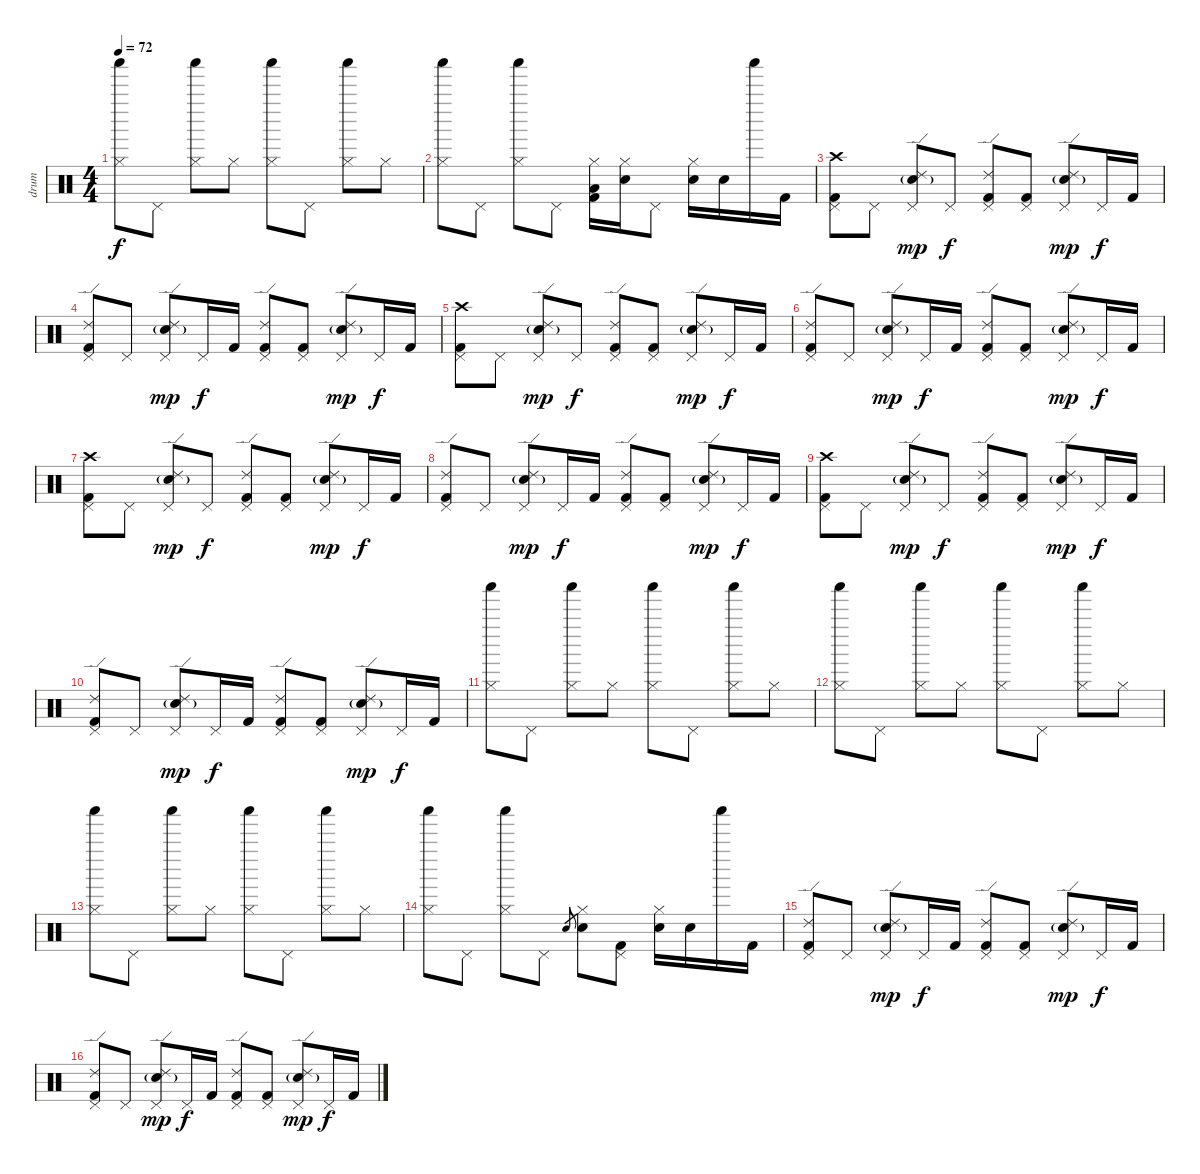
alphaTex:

\track ("drum" "drum") {instrument percussion}
\staff {score}
\articulation defaults
\ts (4 4)
\tempo 72
\clef neutral
\ks c
("Hi-Hat (closed)" "Shaker (hit)").8{dy f} "Pedal Hi-Hat (hit)".8 ("Hi-Hat (closed)" "Shaker (hit)").8 "Hi-Hat (closed)".8 ("Hi-Hat (closed)" "Shaker (hit)").8 "Pedal Hi-Hat (hit)".8 ("Hi-Hat (closed)" "Shaker (hit)").8 "Hi-Hat (closed)".8 |
("Hi-Hat (closed)" "Shaker (hit)").8 "Pedal Hi-Hat (hit)".8 ("Hi-Hat (closed)" "Shaker (hit)").8 "Pedal Hi-Hat (hit)".8 ("Hi-Hat (closed)" "Kick (hit) 2" "Low Floor Tom (hit)").16 ("Hi-Hat (closed)" "Snare (hit) 2").16 "Pedal Hi-Hat (hit)".8 ("Hi-Hat (closed)" "Snare (hit) 2").16 "Snare (hit) 2".16 "Shaker (hit)".16 "Kick (hit) 2".16 |
("Crash high (hit)" "Kick (hit) 2" "Pedal Hi-Hat (hit)").8 "Pedal Hi-Hat (hit)".8 ("Ride (edge) 2" "Electric Snare (hit)"{g} "Pedal Hi-Hat (hit)").8{dy mp} "Pedal Hi-Hat (hit)".8{dy f} ("Ride (edge) 2" "Kick (hit) 2" "Pedal Hi-Hat (hit)").8 ("Kick (hit) 2" "Pedal Hi-Hat (hit)").8 ("Ride (edge) 2" "Electric Snare (hit)"{g} "Pedal Hi-Hat (hit)").8{dy mp} "Pedal Hi-Hat (hit)".16{dy f} "Kick (hit) 2".16 |
("Ride (edge) 2" "Kick (hit) 2" "Pedal Hi-Hat (hit)").8 "Pedal Hi-Hat (hit)".8 ("Ride (edge) 2" "Electric Snare (hit)"{g} "Pedal Hi-Hat (hit)").8{dy mp} "Pedal Hi-Hat (hit)".16{dy f} "Kick (hit) 2".16 ("Ride (edge) 2" "Kick (hit) 2" "Pedal Hi-Hat (hit)").8 ("Kick (hit) 2" "Pedal Hi-Hat (hit)").8 ("Ride (edge) 2" "Electric Snare (hit)"{g} "Pedal Hi-Hat (hit)").8{dy mp} "Pedal Hi-Hat (hit)".16{dy f} "Kick (hit) 2".16 |
("Crash high (hit)" "Kick (hit) 2" "Pedal Hi-Hat (hit)").8 "Pedal Hi-Hat (hit)".8 ("Ride (edge) 2" "Electric Snare (hit)"{g} "Pedal Hi-Hat (hit)").8{dy mp} "Pedal Hi-Hat (hit)".8{dy f} ("Ride (edge) 2" "Kick (hit) 2" "Pedal Hi-Hat (hit)").8 ("Kick (hit) 2" "Pedal Hi-Hat (hit)").8 ("Ride (edge) 2" "Electric Snare (hit)"{g} "Pedal Hi-Hat (hit)").8{dy mp} "Pedal Hi-Hat (hit)".16{dy f} "Kick (hit) 2".16 |
("Ride (edge) 2" "Kick (hit) 2" "Pedal Hi-Hat (hit)").8 "Pedal Hi-Hat (hit)".8 ("Ride (edge) 2" "Electric Snare (hit)"{g} "Pedal Hi-Hat (hit)").8{dy mp} "Pedal Hi-Hat (hit)".16{dy f} "Kick (hit) 2".16 ("Ride (edge) 2" "Kick (hit) 2" "Pedal Hi-Hat (hit)").8 ("Kick (hit) 2" "Pedal Hi-Hat (hit)").8 ("Ride (edge) 2" "Electric Snare (hit)"{g} "Pedal Hi-Hat (hit)").8{dy mp} "Pedal Hi-Hat (hit)".16{dy f} "Kick (hit) 2".16 |
("Crash high (hit)" "Kick (hit) 2" "Pedal Hi-Hat (hit)").8 "Pedal Hi-Hat (hit)".8 ("Ride (edge) 2" "Electric Snare (hit)"{g} "Pedal Hi-Hat (hit)").8{dy mp} "Pedal Hi-Hat (hit)".8{dy f} ("Ride (edge) 2" "Kick (hit) 2" "Pedal Hi-Hat (hit)").8 ("Kick (hit) 2" "Pedal Hi-Hat (hit)").8 ("Ride (edge) 2" "Electric Snare (hit)"{g} "Pedal Hi-Hat (hit)").8{dy mp} "Pedal Hi-Hat (hit)".16{dy f} "Kick (hit) 2".16 |
("Ride (edge) 2" "Kick (hit) 2" "Pedal Hi-Hat (hit)").8 "Pedal Hi-Hat (hit)".8 ("Ride (edge) 2" "Electric Snare (hit)"{g} "Pedal Hi-Hat (hit)").8{dy mp} "Pedal Hi-Hat (hit)".16{dy f} "Kick (hit) 2".16 ("Ride (edge) 2" "Kick (hit) 2" "Pedal Hi-Hat (hit)").8 ("Kick (hit) 2" "Pedal Hi-Hat (hit)").8 ("Ride (edge) 2" "Electric Snare (hit)"{g} "Pedal Hi-Hat (hit)").8{dy mp} "Pedal Hi-Hat (hit)".16{dy f} "Kick (hit) 2".16 |
("Crash high (hit)" "Kick (hit) 2" "Pedal Hi-Hat (hit)").8 "Pedal Hi-Hat (hit)".8 ("Ride (edge) 2" "Electric Snare (hit)"{g} "Pedal Hi-Hat (hit)").8{dy mp} "Pedal Hi-Hat (hit)".8{dy f} ("Ride (edge) 2" "Kick (hit) 2" "Pedal Hi-Hat (hit)").8 ("Kick (hit) 2" "Pedal Hi-Hat (hit)").8 ("Ride (edge) 2" "Electric Snare (hit)"{g} "Pedal Hi-Hat (hit)").8{dy mp} "Pedal Hi-Hat (hit)".16{dy f} "Kick (hit) 2".16 |
("Ride (edge) 2" "Kick (hit) 2" "Pedal Hi-Hat (hit)").8 "Pedal Hi-Hat (hit)".8 ("Ride (edge) 2" "Electric Snare (hit)"{g} "Pedal Hi-Hat (hit)").8{dy mp} "Pedal Hi-Hat (hit)".16{dy f} "Kick (hit) 2".16 ("Ride (edge) 2" "Kick (hit) 2" "Pedal Hi-Hat (hit)").8 ("Kick (hit) 2" "Pedal Hi-Hat (hit)").8 ("Ride (edge) 2" "Electric Snare (hit)"{g} "Pedal Hi-Hat (hit)").8{dy mp} "Pedal Hi-Hat (hit)".16{dy f} "Kick (hit) 2".16 |
("Hi-Hat (closed)" "Shaker (hit)").8 "Pedal Hi-Hat (hit)".8 ("Hi-Hat (closed)" "Shaker (hit)").8 "Hi-Hat (closed)".8 ("Hi-Hat (closed)" "Shaker (hit)").8 "Pedal Hi-Hat (hit)".8 ("Hi-Hat (closed)" "Shaker (hit)").8 "Hi-Hat (closed)".8 |
("Hi-Hat (closed)" "Shaker (hit)").8 "Pedal Hi-Hat (hit)".8 ("Hi-Hat (closed)" "Shaker (hit)").8 "Hi-Hat (closed)".8 ("Hi-Hat (closed)" "Shaker (hit)").8 "Pedal Hi-Hat (hit)".8 ("Hi-Hat (closed)" "Shaker (hit)").8 "Hi-Hat (closed)".8 |
("Hi-Hat (closed)" "Shaker (hit)").8 "Pedal Hi-Hat (hit)".8 ("Hi-Hat (closed)" "Shaker (hit)").8 "Hi-Hat (closed)".8 ("Hi-Hat (closed)" "Shaker (hit)").8 "Pedal Hi-Hat (hit)".8 ("Hi-Hat (closed)" "Shaker (hit)").8 "Hi-Hat (closed)".8 |
("Hi-Hat (closed)" "Shaker (hit)").8 "Pedal Hi-Hat (hit)".8 ("Hi-Hat (closed)" "Shaker (hit)").8 "Pedal Hi-Hat (hit)".8 "Snare (hit) 2".8{gr} ("Hi-Hat (closed)" "Snare (hit) 2").8 ("Pedal Hi-Hat (hit)" "Kick (hit) 2").8 ("Hi-Hat (closed)" "Snare (hit) 2").16 "Snare (hit) 2".16 "Shaker (hit)".16 "Kick (hit) 2".16 |
("Ride (edge) 2" "Kick (hit) 2" "Pedal Hi-Hat (hit)").8 "Pedal Hi-Hat (hit)".8 ("Ride (edge) 2" "Electric Snare (hit)"{g} "Pedal Hi-Hat (hit)").8{dy mp} "Pedal Hi-Hat (hit)".16{dy f} "Kick (hit) 2".16 ("Ride (edge) 2" "Kick (hit) 2" "Pedal Hi-Hat (hit)").8 ("Kick (hit) 2" "Pedal Hi-Hat (hit)").8 ("Ride (edge) 2" "Electric Snare (hit)"{g} "Pedal Hi-Hat (hit)").8{dy mp} "Pedal Hi-Hat (hit)".16{dy f} "Kick (hit) 2".16 |
("Ride (edge) 2" "Kick (hit) 2" "Pedal Hi-Hat (hit)").8 "Pedal Hi-Hat (hit)".8 ("Ride (edge) 2" "Electric Snare (hit)"{g} "Pedal Hi-Hat (hit)").8{dy mp} "Pedal Hi-Hat (hit)".16{dy f} "Kick (hit) 2".16 ("Ride (edge) 2" "Kick (hit) 2" "Pedal Hi-Hat (hit)").8 ("Kick (hit) 2" "Pedal Hi-Hat (hit)").8 ("Ride (edge) 2" "Electric Snare (hit)"{g} "Pedal Hi-Hat (hit)").8{dy mp} "Pedal Hi-Hat (hit)".16{dy f} "Kick (hit) 2".16
